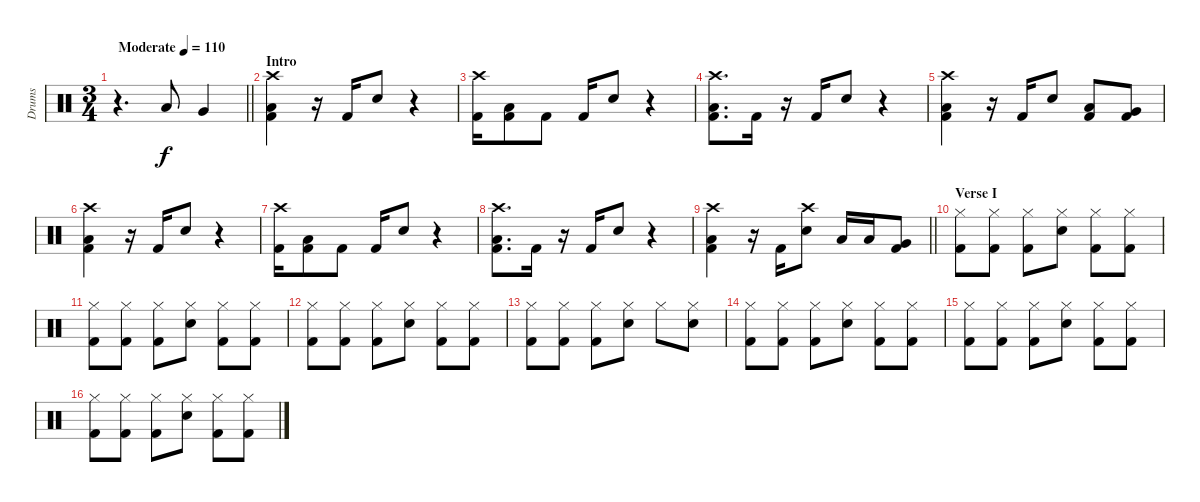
\track ("Drums" "Drums") {instrument percussion}
\staff {score}
\articulation defaults
\ts (3 4)
\tempo (110 "Moderate")
\clef neutral
\barLineRight lightlight
\ks c
r.4{d dy f} "Low Tom (hit)".8 "Very Low Tom (hit)".4 |
\section ("" "Intro")
("Crash high (hit)" "Low Floor Tom (hit)" "Kick (hit) 2").4 r.16 "Kick (hit) 2".16 "Snare (hit) 2".8 r.4 |
("Crash high (hit)" "Kick (hit) 2").16 ("Low Floor Tom (hit)" "Kick (hit) 2").8 "Kick (hit) 2".8 "Kick (hit) 2".16 "Snare (hit) 2".8 r.4 |
("Crash high (hit)" "Low Floor Tom (hit)" "Kick (hit) 2").8{d} "Kick (hit) 2".16 r.16 "Kick (hit) 2".16 "Snare (hit) 2".8 r.4 |
("Crash high (hit)" "Low Floor Tom (hit)" "Kick (hit) 2").4 r.16 "Kick (hit) 2".16 "Snare (hit) 2".8 ("Low Tom (hit)" "Kick (hit) 2").8 ("Very Low Tom (hit)" "Kick (hit) 2").8 |
("Crash high (hit)" "Low Floor Tom (hit)" "Kick (hit) 2").4 r.16 "Kick (hit) 2".16 "Snare (hit) 2".8 r.4 |
("Crash high (hit)" "Kick (hit) 2").16 ("Low Floor Tom (hit)" "Kick (hit) 2").8 "Kick (hit) 2".8 "Kick (hit) 2".16 "Snare (hit) 2".8 r.4 |
("Crash high (hit)" "Low Floor Tom (hit)" "Kick (hit) 2").8{d} "Kick (hit) 2".16 r.16 "Kick (hit) 2".16 "Snare (hit) 2".8 r.4 |
\barLineRight lightlight
("Crash high (hit)" "Low Floor Tom (hit)" "Kick (hit) 2").4 r.16 "Kick (hit) 2".16 ("Crash high (hit)" "Snare (hit) 2").8 "Low Tom (hit)".16 "Low Tom (hit)".16 ("Very Low Tom (hit)" "Kick (hit) 2").8 |
\section ("" "Verse I")
("Hi-Hat (closed)" "Kick (hit) 2").8 ("Hi-Hat (closed)" "Kick (hit) 2").8 ("Hi-Hat (closed)" "Kick (hit) 2").8 ("Hi-Hat (closed)" "Snare (hit) 2").8 ("Hi-Hat (closed)" "Kick (hit) 2").8 ("Hi-Hat (closed)" "Kick (hit) 2").8 |
("Hi-Hat (closed)" "Kick (hit) 2").8 ("Hi-Hat (closed)" "Kick (hit) 2").8 ("Hi-Hat (closed)" "Kick (hit) 2").8 ("Hi-Hat (closed)" "Snare (hit) 2").8 ("Hi-Hat (closed)" "Kick (hit) 2").8 ("Hi-Hat (closed)" "Kick (hit) 2").8 |
("Hi-Hat (closed)" "Kick (hit) 2").8 ("Hi-Hat (closed)" "Kick (hit) 2").8 ("Hi-Hat (closed)" "Kick (hit) 2").8 ("Hi-Hat (closed)" "Snare (hit) 2").8 ("Hi-Hat (closed)" "Kick (hit) 2").8 ("Hi-Hat (closed)" "Kick (hit) 2").8 |
("Hi-Hat (closed)" "Kick (hit) 2").8 ("Hi-Hat (closed)" "Kick (hit) 2").8 ("Hi-Hat (closed)" "Kick (hit) 2").8 ("Hi-Hat (closed)" "Snare (hit) 2").8 "Hi-Hat (closed)".8 ("Hi-Hat (closed)" "Snare (hit) 2").8 |
("Hi-Hat (closed)" "Kick (hit) 2").8 ("Hi-Hat (closed)" "Kick (hit) 2").8 ("Hi-Hat (closed)" "Kick (hit) 2").8 ("Hi-Hat (closed)" "Snare (hit) 2").8 ("Hi-Hat (closed)" "Kick (hit) 2").8 ("Hi-Hat (closed)" "Kick (hit) 2").8 |
("Hi-Hat (closed)" "Kick (hit) 2").8 ("Hi-Hat (closed)" "Kick (hit) 2").8 ("Hi-Hat (closed)" "Kick (hit) 2").8 ("Hi-Hat (closed)" "Snare (hit) 2").8 ("Hi-Hat (closed)" "Kick (hit) 2").8 ("Hi-Hat (closed)" "Kick (hit) 2").8 |
("Hi-Hat (closed)" "Kick (hit) 2").8 ("Hi-Hat (closed)" "Kick (hit) 2").8 ("Hi-Hat (closed)" "Kick (hit) 2").8 ("Hi-Hat (closed)" "Snare (hit) 2").8 ("Hi-Hat (closed)" "Kick (hit) 2").8 ("Hi-Hat (closed)" "Kick (hit) 2").8
